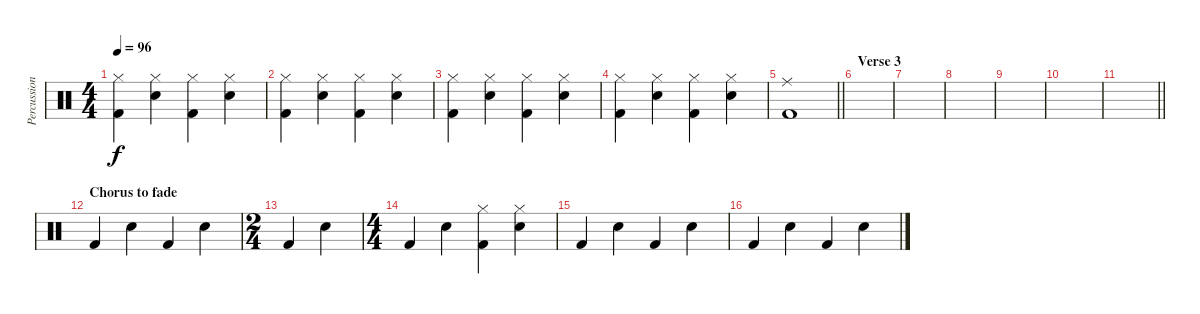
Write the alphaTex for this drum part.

\track ("Percussion" "Percussion") {instrument percussion}
\staff {score}
\articulation defaults
\ts (4 4)
\tempo 96
\clef neutral
\ks c
("Hi-Hat (closed)" "Kick (hit) 2").4{dy f} ("Hi-Hat (closed)" "Snare (hit) 2").4 ("Hi-Hat (closed)" "Kick (hit) 2").4 ("Hi-Hat (closed)" "Snare (hit) 2").4 |
("Hi-Hat (closed)" "Kick (hit) 2").4 ("Hi-Hat (closed)" "Snare (hit) 2").4 ("Hi-Hat (closed)" "Kick (hit) 2").4 ("Hi-Hat (closed)" "Snare (hit) 2").4 |
("Hi-Hat (closed)" "Kick (hit) 2").4 ("Hi-Hat (closed)" "Snare (hit) 2").4 ("Hi-Hat (closed)" "Kick (hit) 2").4 ("Hi-Hat (closed)" "Snare (hit) 2").4 |
("Hi-Hat (closed)" "Kick (hit) 2").4 ("Hi-Hat (closed)" "Snare (hit) 2").4 ("Hi-Hat (closed)" "Kick (hit) 2").4 ("Hi-Hat (closed)" "Snare (hit) 2").4 |
\barLineRight lightlight
("Ride (middle)" "Kick (hit) 2").1 |
\section ("" "Verse 3")
|
|
|
|
|
\barLineRight lightlight
|
\section ("" "Chorus to fade")
"Kick (hit) 2".4 "Snare (hit) 2".4 "Kick (hit) 2".4 "Snare (hit) 2".4 |
\ts (2 4)
"Kick (hit) 2".4 "Snare (hit) 2".4 |
\ts (4 4)
"Kick (hit) 2".4 "Snare (hit) 2".4 ("Hi-Hat (closed)" "Kick (hit) 2").4 ("Hi-Hat (closed)" "Snare (hit) 2").4 |
"Kick (hit) 2".4 "Snare (hit) 2".4 "Kick (hit) 2".4 "Snare (hit) 2".4 |
"Kick (hit) 2".4 "Snare (hit) 2".4 "Kick (hit) 2".4 "Snare (hit) 2".4
